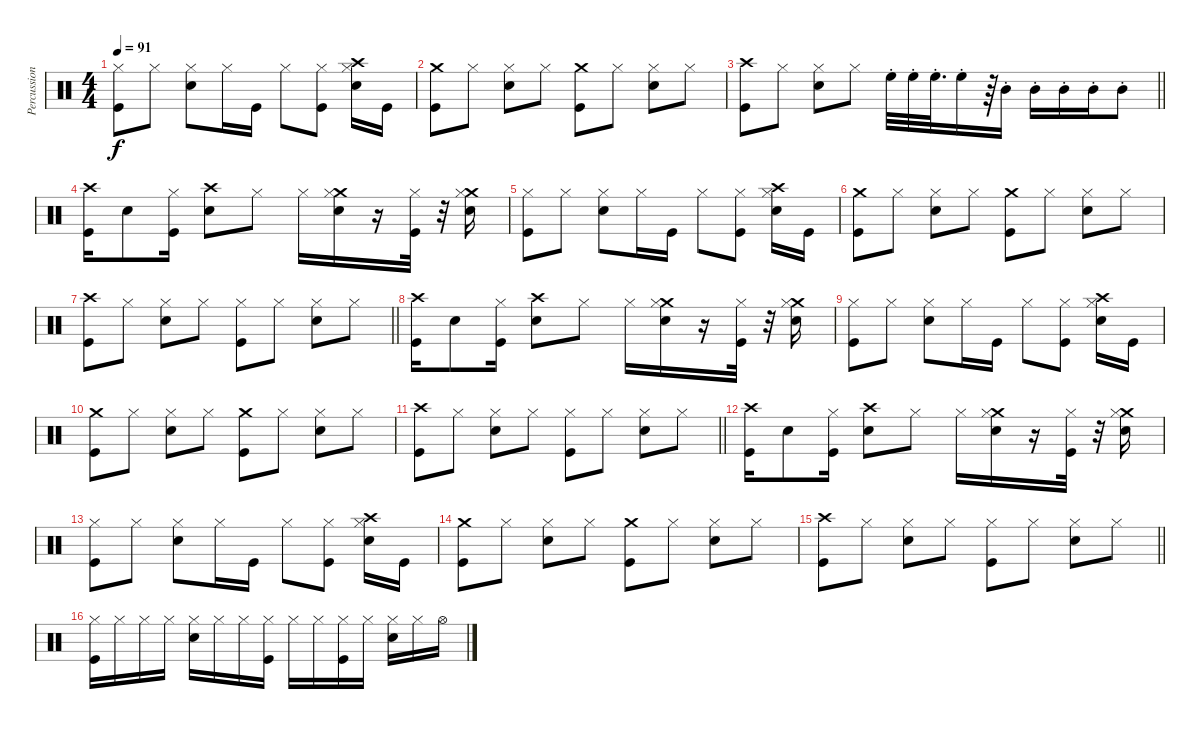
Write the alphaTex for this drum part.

\track ("Percussion" "Percussion") {instrument percussion}
\staff {score}
\articulation defaults
\ts (4 4)
\tempo 91
\clef neutral
\ks c
("Hi-Hat (closed)" "Kick (hit)").8{dy f} "Hi-Hat (closed)".8 ("Hi-Hat (closed)" "Snare (hit) 2").8 "Hi-Hat (closed)".16 "Kick (hit)".16 "Hi-Hat (closed)".8 ("Hi-Hat (closed)" "Kick (hit)").8 ("Crash high (hit)" "Hi-Hat (closed)" "Snare (hit) 2").16 "Kick (hit)".16 |
("Crash medium (hit)" "Kick (hit)").8 "Hi-Hat (closed)".8 ("Hi-Hat (closed)" "Snare (hit) 2").8 "Hi-Hat (closed)".8 ("Crash medium (hit)" "Kick (hit)").8 "Hi-Hat (closed)".8 ("Hi-Hat (closed)" "Snare (hit) 2").8 "Hi-Hat (closed)".8 |
\barLineRight lightlight
("Crash high (hit)" "Kick (hit)").8 "Hi-Hat (closed)".8 ("Hi-Hat (closed)" "Snare (hit) 2").8 "Hi-Hat (closed)".8 "High Floor Tom (hit)"{st}.32 "High Floor Tom (hit)"{st}.32 "High Floor Tom (hit)"{st}.32{d} "High Floor Tom (hit)"{st}.16 r.64 "Mid Tom (hit)"{st}.16 "Mid Tom (hit)"{st}.16 "Mid Tom (hit)"{st}.16 "Mid Tom (hit)"{st}.16 "Mid Tom (hit)"{st}.8 |
("Crash high (hit)" "Kick (hit)").16 "Snare (hit) 2".8 ("Hi-Hat (closed)" "Kick (hit)").16 ("Crash high (hit)" "Snare (hit) 2").8 "Hi-Hat (closed)".8 "Hi-Hat (closed)".16 ("Crash medium (hit)" "Hi-Hat (closed)" "Snare (hit) 2").16 r.16 ("Hi-Hat (closed)" "Kick (hit)").32 r.32 ("Crash medium (hit)" "Hi-Hat (closed)" "Snare (hit) 2").16 |
("Hi-Hat (closed)" "Kick (hit)").8 "Hi-Hat (closed)".8 ("Hi-Hat (closed)" "Snare (hit) 2").8 "Hi-Hat (closed)".16 "Kick (hit)".16 "Hi-Hat (closed)".8 ("Hi-Hat (closed)" "Kick (hit)").8 ("Crash high (hit)" "Hi-Hat (closed)" "Snare (hit) 2").16 "Kick (hit)".16 |
("Crash medium (hit)" "Kick (hit)").8 "Hi-Hat (closed)".8 ("Hi-Hat (closed)" "Snare (hit) 2").8 "Hi-Hat (closed)".8 ("Crash medium (hit)" "Kick (hit)").8 "Hi-Hat (closed)".8 ("Hi-Hat (closed)" "Snare (hit) 2").8 "Hi-Hat (closed)".8 |
\barLineRight lightlight
("Crash high (hit)" "Kick (hit)").8 "Hi-Hat (closed)".8 ("Hi-Hat (closed)" "Snare (hit) 2").8 "Hi-Hat (closed)".8 ("Hi-Hat (closed)" "Kick (hit)").8 "Hi-Hat (closed)".8 ("Hi-Hat (closed)" "Snare (hit) 2").8 "Hi-Hat (closed)".8 |
("Crash high (hit)" "Kick (hit)").16 "Snare (hit) 2".8 ("Hi-Hat (closed)" "Kick (hit)").16 ("Crash high (hit)" "Snare (hit) 2").8 "Hi-Hat (closed)".8 "Hi-Hat (closed)".16 ("Crash medium (hit)" "Hi-Hat (closed)" "Snare (hit) 2").16 r.16 ("Hi-Hat (closed)" "Kick (hit)").32 r.32 ("Crash medium (hit)" "Hi-Hat (closed)" "Snare (hit) 2").16 |
("Hi-Hat (closed)" "Kick (hit)").8 "Hi-Hat (closed)".8 ("Hi-Hat (closed)" "Snare (hit) 2").8 "Hi-Hat (closed)".16 "Kick (hit)".16 "Hi-Hat (closed)".8 ("Hi-Hat (closed)" "Kick (hit)").8 ("Crash high (hit)" "Hi-Hat (closed)" "Snare (hit) 2").16 "Kick (hit)".16 |
("Crash medium (hit)" "Kick (hit)").8 "Hi-Hat (closed)".8 ("Hi-Hat (closed)" "Snare (hit) 2").8 "Hi-Hat (closed)".8 ("Crash medium (hit)" "Kick (hit)").8 "Hi-Hat (closed)".8 ("Hi-Hat (closed)" "Snare (hit) 2").8 "Hi-Hat (closed)".8 |
\barLineRight lightlight
("Crash high (hit)" "Kick (hit)").8 "Hi-Hat (closed)".8 ("Hi-Hat (closed)" "Snare (hit) 2").8 "Hi-Hat (closed)".8 ("Hi-Hat (closed)" "Kick (hit)").8 "Hi-Hat (closed)".8 ("Hi-Hat (closed)" "Snare (hit) 2").8 "Hi-Hat (closed)".8 |
("Crash high (hit)" "Kick (hit)").16 "Snare (hit) 2".8 ("Hi-Hat (closed)" "Kick (hit)").16 ("Crash high (hit)" "Snare (hit) 2").8 "Hi-Hat (closed)".8 "Hi-Hat (closed)".16 ("Crash medium (hit)" "Hi-Hat (closed)" "Snare (hit) 2").16 r.16 ("Hi-Hat (closed)" "Kick (hit)").32 r.32 ("Crash medium (hit)" "Hi-Hat (closed)" "Snare (hit) 2").16 |
("Hi-Hat (closed)" "Kick (hit)").8 "Hi-Hat (closed)".8 ("Hi-Hat (closed)" "Snare (hit) 2").8 "Hi-Hat (closed)".16 "Kick (hit)".16 "Hi-Hat (closed)".8 ("Hi-Hat (closed)" "Kick (hit)").8 ("Crash high (hit)" "Hi-Hat (closed)" "Snare (hit) 2").16 "Kick (hit)".16 |
("Crash medium (hit)" "Kick (hit)").8 "Hi-Hat (closed)".8 ("Hi-Hat (closed)" "Snare (hit) 2").8 "Hi-Hat (closed)".8 ("Crash medium (hit)" "Kick (hit)").8 "Hi-Hat (closed)".8 ("Hi-Hat (closed)" "Snare (hit) 2").8 "Hi-Hat (closed)".8 |
\barLineRight lightlight
("Crash high (hit)" "Kick (hit)").8 "Hi-Hat (closed)".8 ("Hi-Hat (closed)" "Snare (hit) 2").8 "Hi-Hat (closed)".8 ("Hi-Hat (closed)" "Kick (hit)").8 "Hi-Hat (closed)".8 ("Hi-Hat (closed)" "Snare (hit) 2").8 "Hi-Hat (closed)".8 |
("Hi-Hat (closed)" "Kick (hit)").16 "Hi-Hat (closed)".16 "Hi-Hat (closed)".16 "Hi-Hat (closed)".16 ("Hi-Hat (closed)" "Snare (hit) 2").16 "Hi-Hat (closed)".16 "Hi-Hat (closed)".16 ("Hi-Hat (closed)" "Kick (hit)").16 "Hi-Hat (closed)".16 "Hi-Hat (closed)".16 ("Hi-Hat (closed)" "Kick (hit)").16 "Hi-Hat (closed)".16 ("Hi-Hat (closed)" "Snare (hit) 2").16 "Hi-Hat (closed)".16 "Hi-Hat (open)".16
